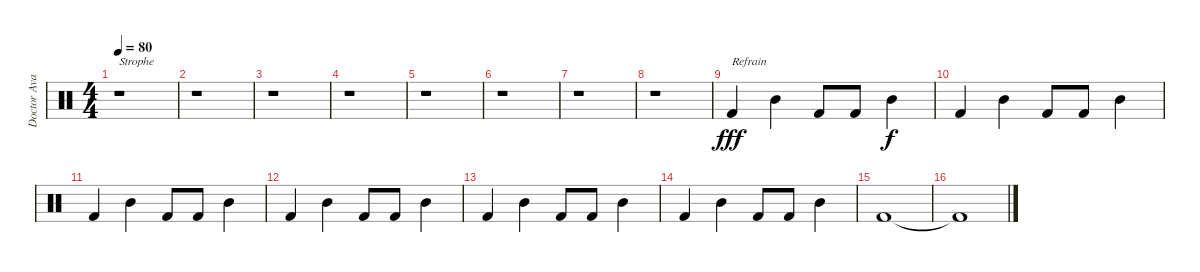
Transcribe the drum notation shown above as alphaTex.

\track ("Doctor Avalanche" "Doctor Ava") {instrument percussion}
\staff {score}
\articulation defaults
\ts (4 4)
\tempo 80
\clef neutral
\ks c
r.1{txt "Strophe" dy fff} |
r.1 |
r.1 |
r.1 |
r.1 |
r.1 |
r.1 |
r.1 |
"Kick (hit) 2".4{txt "Refrain"} "Mid Tom (hit)".4 "Kick (hit) 2".8 "Kick (hit) 2".8 "Mid Tom (hit)".4{dy f} |
"Kick (hit) 2".4 "Mid Tom (hit)".4 "Kick (hit) 2".8 "Kick (hit) 2".8 "Mid Tom (hit)".4 |
"Kick (hit) 2".4 "Mid Tom (hit)".4 "Kick (hit) 2".8 "Kick (hit) 2".8 "Mid Tom (hit)".4 |
"Kick (hit) 2".4 "Mid Tom (hit)".4 "Kick (hit) 2".8 "Kick (hit) 2".8 "Mid Tom (hit)".4 |
"Kick (hit) 2".4 "Mid Tom (hit)".4 "Kick (hit) 2".8 "Kick (hit) 2".8 "Mid Tom (hit)".4 |
"Kick (hit) 2".4 "Mid Tom (hit)".4 "Kick (hit) 2".8 "Kick (hit) 2".8 "Mid Tom (hit)".4 |
"Kick (hit) 2".1 |
"Kick (hit) 2"{t}.1
